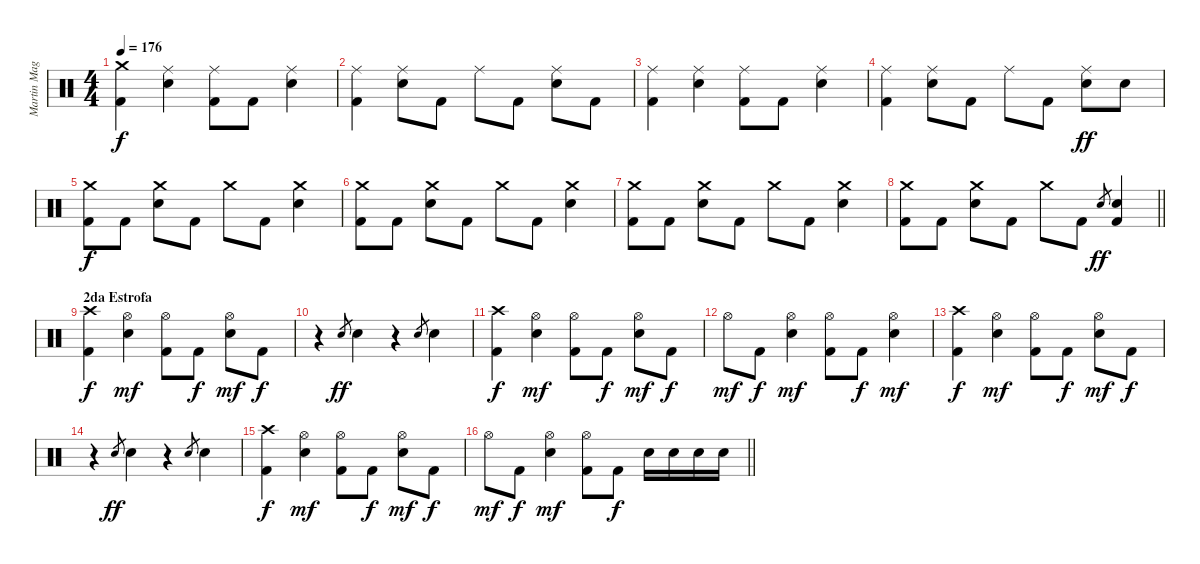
\track ("Martin Magliano" "Martin Mag") {instrument percussion}
\staff {score}
\articulation defaults
\ts (4 4)
\tempo 176
\clef neutral
\ks c
("Crash medium (hit)" "Kick (hit) 2").4{dy f} ("Ride (middle)" "Snare (hit) 2").4 ("Ride (middle)" "Kick (hit) 2").8 "Kick (hit) 2".8 ("Ride (middle)" "Snare (hit) 2").4 |
("Ride (middle)" "Kick (hit) 2").4 ("Ride (middle)" "Snare (hit) 2").8 "Kick (hit) 2".8 "Ride (middle)".8 "Kick (hit) 2".8 ("Ride (middle)" "Snare (hit) 2").8 "Kick (hit) 2".8 |
("Ride (middle)" "Kick (hit) 2").4 ("Ride (middle)" "Snare (hit) 2").4 ("Ride (middle)" "Kick (hit) 2").8 "Kick (hit) 2".8 ("Ride (middle)" "Snare (hit) 2").4 |
("Ride (middle)" "Kick (hit) 2").4 ("Ride (middle)" "Snare (hit) 2").8 "Kick (hit) 2".8 "Ride (middle)".8 "Kick (hit) 2".8 ("Ride (middle)" "Snare (hit) 2").8{dy ff} "Snare (hit) 2".8 |
("Crash medium (hit)" "Kick (hit) 2").8{dy f} "Kick (hit) 2".8 ("Crash medium (hit)" "Snare (hit) 2").8 "Kick (hit) 2".8 "Crash medium (hit)".8 "Kick (hit) 2".8 ("Crash medium (hit)" "Snare (hit) 2").4 |
("Crash medium (hit)" "Kick (hit) 2").8 "Kick (hit) 2".8 ("Crash medium (hit)" "Snare (hit) 2").8 "Kick (hit) 2".8 "Crash medium (hit)".8 "Kick (hit) 2".8 ("Crash medium (hit)" "Snare (hit) 2").4 |
("Crash medium (hit)" "Kick (hit) 2").8 "Kick (hit) 2".8 ("Crash medium (hit)" "Snare (hit) 2").8 "Kick (hit) 2".8 "Crash medium (hit)".8 "Kick (hit) 2".8 ("Crash medium (hit)" "Snare (hit) 2").4 |
\barLineRight lightlight
("Crash medium (hit)" "Kick (hit) 2").8 "Kick (hit) 2".8 ("Crash medium (hit)" "Snare (hit) 2").8 "Kick (hit) 2".8 "Crash medium (hit)".8 "Kick (hit) 2".8 "Snare (hit) 2".8{gr dy ff} ("Snare (hit) 2" "Kick (hit) 2").4 |
\section ("" "2da Estrofa")
("Crash high (hit)" "Kick (hit) 2").4{dy f} ("Hi-Hat (open)" "Snare (hit) 2").4{dy mf} ("Hi-Hat (open)" "Kick (hit) 2").8 "Kick (hit) 2".8{dy f} ("Hi-Hat (open)" "Snare (hit) 2").8{dy mf} "Kick (hit) 2".8{dy f} |
r.4 "Snare (hit) 2".8{gr dy ff} "Snare (hit) 2".4 r.4 "Snare (hit) 2".8{gr} "Snare (hit) 2".4 |
("Crash high (hit)" "Kick (hit) 2").4{dy f} ("Hi-Hat (open)" "Snare (hit) 2").4{dy mf} ("Hi-Hat (open)" "Kick (hit) 2").8 "Kick (hit) 2".8{dy f} ("Hi-Hat (open)" "Snare (hit) 2").8{dy mf} "Kick (hit) 2".8{dy f} |
"Hi-Hat (open)".8{dy mf} "Kick (hit) 2".8{dy f} ("Hi-Hat (open)" "Snare (hit) 2").4{dy mf} ("Hi-Hat (open)" "Kick (hit) 2").8 "Kick (hit) 2".8{dy f} ("Hi-Hat (open)" "Snare (hit) 2").4{dy mf} |
("Crash high (hit)" "Kick (hit) 2").4{dy f} ("Hi-Hat (open)" "Snare (hit) 2").4{dy mf} ("Hi-Hat (open)" "Kick (hit) 2").8 "Kick (hit) 2".8{dy f} ("Hi-Hat (open)" "Snare (hit) 2").8{dy mf} "Kick (hit) 2".8{dy f} |
r.4 "Snare (hit) 2".8{gr dy ff} "Snare (hit) 2".4 r.4 "Snare (hit) 2".8{gr} "Snare (hit) 2".4 |
("Crash high (hit)" "Kick (hit) 2").4{dy f} ("Hi-Hat (open)" "Snare (hit) 2").4{dy mf} ("Hi-Hat (open)" "Kick (hit) 2").8 "Kick (hit) 2".8{dy f} ("Hi-Hat (open)" "Snare (hit) 2").8{dy mf} "Kick (hit) 2".8{dy f} |
\barLineRight lightlight "Hi-Hat (open)".8{dy mf} "Kick (hit) 2".8{dy f}
("Hi-Hat (open)" "Snare (hit) 2").4{dy mf} ("Hi-Hat (open)" "Kick (hit) 2").8 "Kick (hit) 2".8{dy f} "Snare (hit) 2".16 "Snare (hit) 2".16 "Snare (hit) 2".16 "Snare (hit) 2".16
